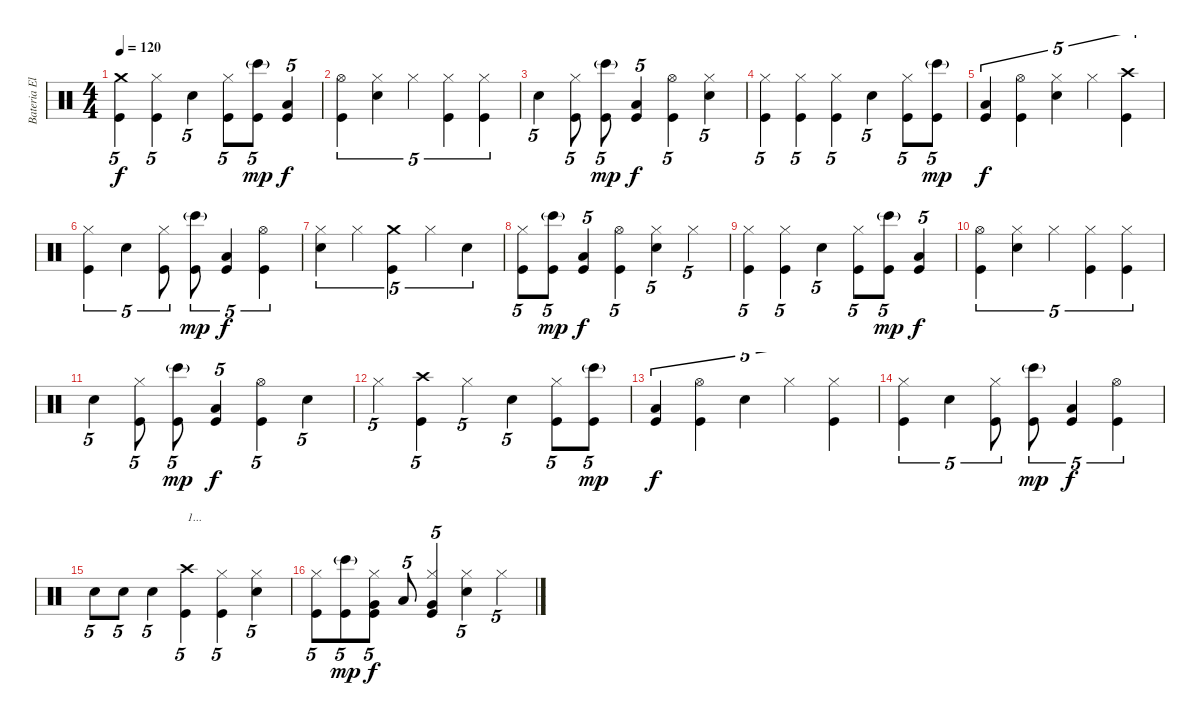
\track ("Bateria Eletrônica" "Bateria El") {instrument percussion}
\staff {score}
\articulation defaults
\ts (4 4)
\tempo 120
\clef neutral
\ks c
("Kick (hit)" "Crash medium (hit)").4{tu (5 4) dy f} ("Kick (hit)" "Hi-Hat (closed)").4{tu (5 4)} "Snare (hit) 2".4{tu (5 4)} ("Kick (hit)" "Hi-Hat (closed)").8{tu (5 4)} ("Kick (hit)" "Bongo High (hit)"{g}).8{tu (5 4) dy mp} ("Kick (hit)" "Low Tom (hit)").4{tu (5 4) dy f} |
("Kick (hit)" "Hi-Hat (open)").4{tu (5 4)} ("Snare (hit) 2" "Hi-Hat (closed)").4{tu (5 4)} "Hi-Hat (closed)".4{tu (5 4)} ("Kick (hit)" "Hi-Hat (closed)").4{tu (5 4)} ("Kick (hit)" "Hi-Hat (closed)").4{tu (5 4)} |
"Snare (hit) 2".4{tu (5 4)} ("Kick (hit)" "Hi-Hat (closed)").8{tu (5 4)} ("Kick (hit)" "Bongo High (hit)"{g}).8{tu (5 4) dy mp} ("Kick (hit)" "Low Tom (hit)").4{tu (5 4) dy f} ("Kick (hit)" "Hi-Hat (open)").4{tu (5 4)} ("Snare (hit) 2" "Hi-Hat (closed)").4{tu (5 4)} |
("Kick (hit)" "Hi-Hat (closed)").4{tu (5 4)} ("Kick (hit)" "Hi-Hat (closed)").4{tu (5 4)} ("Kick (hit)" "Hi-Hat (closed)").4{tu (5 4)} "Snare (hit) 2".4{tu (5 4)} ("Kick (hit)" "Hi-Hat (closed)").8{tu (5 4)} ("Kick (hit)" "Bongo High (hit)"{g}).8{tu (5 4) dy mp} |
("Kick (hit)" "Low Tom (hit)").4{tu (5 4) dy f} ("Kick (hit)" "Hi-Hat (open)").4{tu (5 4)} ("Snare (hit) 2" "Hi-Hat (closed)").4{tu (5 4)} "Hi-Hat (closed)".4{tu (5 4)} ("Kick (hit)" "Crash high (hit)").4{tu (5 4)} |
("Kick (hit)" "Hi-Hat (closed)").4{tu (5 4)} "Snare (hit) 2".4{tu (5 4)} ("Kick (hit)" "Hi-Hat (closed)").8{tu (5 4)} ("Kick (hit)" "Bongo High (hit)"{g}).8{tu (5 4) dy mp} ("Kick (hit)" "Low Tom (hit)").4{tu (5 4) dy f} ("Kick (hit)" "Hi-Hat (open)").4{tu (5 4)} |
("Snare (hit) 2" "Hi-Hat (closed)").4{tu (5 4)} "Hi-Hat (closed)".4{tu (5 4)} ("Kick (hit)" "Crash medium (hit)").4{tu (5 4)} "Hi-Hat (closed)".4{tu (5 4)} "Snare (hit) 2".4{tu (5 4)} |
("Kick (hit)" "Hi-Hat (closed)").8{tu (5 4)} ("Kick (hit)" "Bongo High (hit)"{g}).8{tu (5 4) dy mp} ("Kick (hit)" "Low Tom (hit)").4{tu (5 4) dy f} ("Kick (hit)" "Hi-Hat (open)").4{tu (5 4)} ("Snare (hit) 2" "Hi-Hat (closed)").4{tu (5 4)} "Hi-Hat (closed)".4{tu (5 4)} |
("Kick (hit)" "Hi-Hat (closed)").4{tu (5 4)} ("Kick (hit)" "Hi-Hat (closed)").4{tu (5 4)} "Snare (hit) 2".4{tu (5 4)} ("Kick (hit)" "Hi-Hat (closed)").8{tu (5 4)} ("Kick (hit)" "Bongo High (hit)"{g}).8{tu (5 4) dy mp} ("Kick (hit)" "Low Tom (hit)").4{tu (5 4) dy f} |
("Kick (hit)" "Hi-Hat (open)").4{tu (5 4)} ("Snare (hit) 2" "Hi-Hat (closed)").4{tu (5 4)} "Hi-Hat (closed)".4{tu (5 4)} ("Kick (hit)" "Hi-Hat (closed)").4{tu (5 4)} ("Kick (hit)" "Hi-Hat (closed)").4{tu (5 4)} |
"Snare (hit) 2".4{tu (5 4)} ("Kick (hit)" "Hi-Hat (closed)").8{tu (5 4)} ("Kick (hit)" "Bongo High (hit)"{g}).8{tu (5 4) dy mp} ("Kick (hit)" "Low Tom (hit)").4{tu (5 4) dy f} ("Kick (hit)" "Hi-Hat (open)").4{tu (5 4)} "Snare (hit) 2".4{tu (5 4)} |
"Hi-Hat (closed)".4{tu (5 4)} ("Kick (hit)" "Crash high (hit)").4{tu (5 4)} "Hi-Hat (closed)".4{tu (5 4)} "Snare (hit) 2".4{tu (5 4)} ("Kick (hit)" "Hi-Hat (closed)").8{tu (5 4)} ("Kick (hit)" "Bongo High (hit)"{g}).8{tu (5 4) dy mp} |
("Kick (hit)" "Low Tom (hit)").4{tu (5 4) dy f} ("Kick (hit)" "Hi-Hat (open)").4{tu (5 4)} "Snare (hit) 2".4{tu (5 4)} "Hi-Hat (closed)".4{tu (5 4)} ("Kick (hit)" "Hi-Hat (closed)").4{tu (5 4)} |
("Kick (hit)" "Hi-Hat (closed)").4{tu (5 4)} "Snare (hit) 2".4{tu (5 4)} ("Kick (hit)" "Hi-Hat (closed)").8{tu (5 4)} ("Kick (hit)" "Bongo High (hit)"{g}).8{tu (5 4) dy mp} ("Kick (hit)" "Low Tom (hit)").4{tu (5 4) dy f} ("Kick (hit)" "Hi-Hat (open)").4{tu (5 4)} |
"Snare (hit) 2".8{tu (5 4)} "Snare (hit) 2".8{tu (5 4)} "Snare (hit) 2".4{tu (5 4)} ("Kick (hit)" "Crash high (hit)").4{tu (5 4) txt "1..."} ("Kick (hit)" "Hi-Hat (closed)").4{tu (5 4)} ("Snare (hit) 2" "Hi-Hat (closed)").4{tu (5 4)} |
("Kick (hit)" "Hi-Hat (closed)").8{tu (5 4)} ("Kick (hit)" "Bongo High (hit)"{g}).8{tu (5 4) dy mp} ("Kick (hit)" "Hi-Hat (closed)" "Very Low Tom (hit)").8{tu (5 4) dy f} "Low Tom (hit)".8{tu (5 4)} ("Kick (hit)" "Hi-Hat (closed)" "Very Low Tom (hit)").4{tu (5 4)} ("Snare (hit) 2" "Hi-Hat (closed)").4{tu (5 4)} "Hi-Hat (closed)".4{tu (5 4)}
